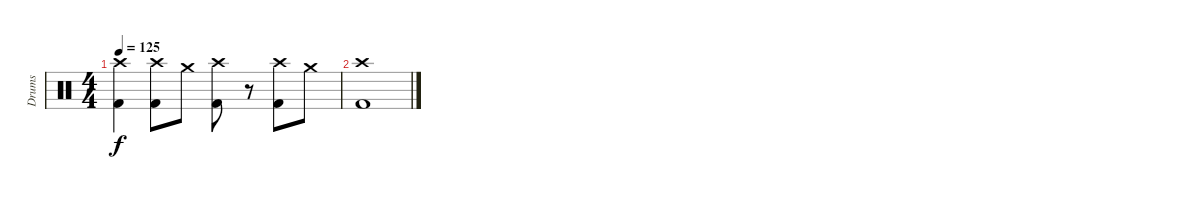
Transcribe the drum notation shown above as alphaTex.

\track ("Drums" "Drums") {instrument percussion}
\staff {score}
\articulation defaults
\ts (4 4)
\tempo 125
\clef neutral
\ks c
("Crash high (hit)" "Kick (hit) 2").4{dy f} ("Crash high (hit)" "Kick (hit) 2").8 "Crash medium (hit)".8 ("Crash high (hit)" "Kick (hit) 2").8 r.8 ("Crash high (hit)" "Kick (hit) 2").8 "Crash medium (hit)".8 |
("Crash high (hit)" "Kick (hit) 2").1
